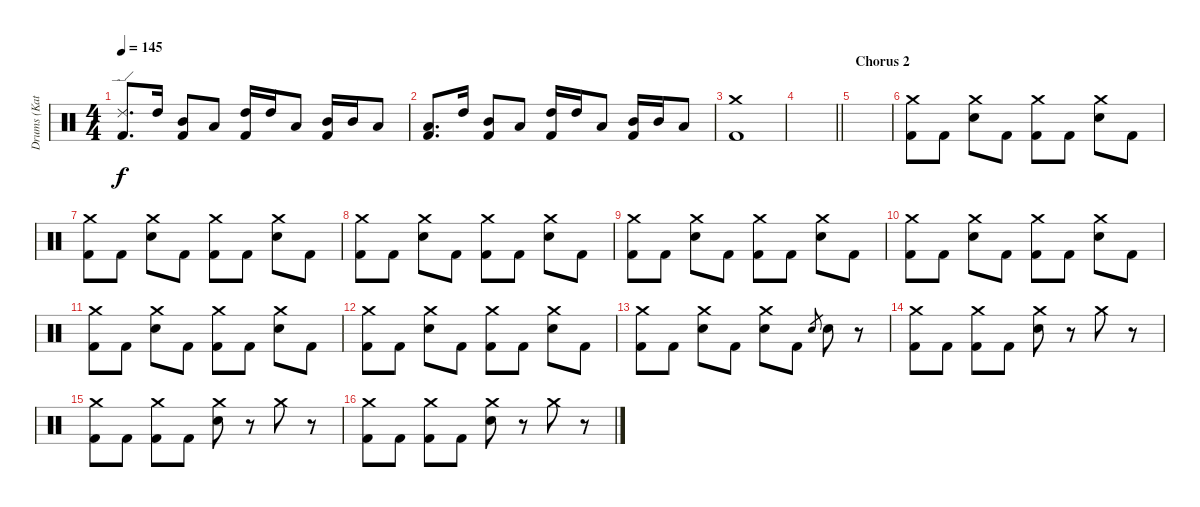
\track ("Drums (Katsuma)" "Drums (Kat") {instrument percussion}
\staff {score}
\articulation defaults
\ts (4 4)
\tempo 145
\clef neutral
\ks c
("Ride (edge) 2" "Kick (hit) 2").8{d dy f} "High Tom (hit)".16 ("Mid Tom (hit)" "Kick (hit) 2").8 "Low Tom (hit)".8 ("High Tom (hit)" "Kick (hit) 2").16 "High Tom (hit)".16 "Low Tom (hit)".8 ("Mid Tom (hit)" "Kick (hit) 2").16 "Mid Tom (hit)".16 "Low Tom (hit)".8 |
("Low Tom (hit)" "Kick (hit) 2").8{d} "High Tom (hit)".16 ("Mid Tom (hit)" "Kick (hit) 2").8 "Low Tom (hit)".8 ("High Tom (hit)" "Kick (hit) 2").16 "High Tom (hit)".16 "Low Tom (hit)".8 ("Mid Tom (hit)" "Kick (hit) 2").16 "Mid Tom (hit)".16 "Low Tom (hit)".8 |
("Crash medium (hit)" "Kick (hit) 2").1 |
\barLineRight lightlight
|
\section ("" "Chorus 2")
|
("Crash medium (hit)" "Kick (hit) 2").8 "Kick (hit) 2".8 ("Crash medium (hit)" "Electric Snare (hit)").8 "Kick (hit) 2".8 ("Crash medium (hit)" "Kick (hit) 2").8 "Kick (hit) 2".8 ("Crash medium (hit)" "Electric Snare (hit)").8 "Kick (hit) 2".8 |
("Crash medium (hit)" "Kick (hit) 2").8 "Kick (hit) 2".8 ("Crash medium (hit)" "Electric Snare (hit)").8 "Kick (hit) 2".8 ("Crash medium (hit)" "Kick (hit) 2").8 "Kick (hit) 2".8 ("Crash medium (hit)" "Electric Snare (hit)").8 "Kick (hit) 2".8 |
("Crash medium (hit)" "Kick (hit) 2").8 "Kick (hit) 2".8 ("Crash medium (hit)" "Electric Snare (hit)").8 "Kick (hit) 2".8 ("Crash medium (hit)" "Kick (hit) 2").8 "Kick (hit) 2".8 ("Crash medium (hit)" "Electric Snare (hit)").8 "Kick (hit) 2".8 |
("Crash medium (hit)" "Kick (hit) 2").8 "Kick (hit) 2".8 ("Crash medium (hit)" "Electric Snare (hit)").8 "Kick (hit) 2".8 ("Crash medium (hit)" "Kick (hit) 2").8 "Kick (hit) 2".8 ("Crash medium (hit)" "Electric Snare (hit)").8 "Kick (hit) 2".8 |
("Crash medium (hit)" "Kick (hit) 2").8 "Kick (hit) 2".8 ("Crash medium (hit)" "Electric Snare (hit)").8 "Kick (hit) 2".8 ("Crash medium (hit)" "Kick (hit) 2").8 "Kick (hit) 2".8 ("Crash medium (hit)" "Electric Snare (hit)").8 "Kick (hit) 2".8 |
("Crash medium (hit)" "Kick (hit) 2").8 "Kick (hit) 2".8 ("Crash medium (hit)" "Electric Snare (hit)").8 "Kick (hit) 2".8 ("Crash medium (hit)" "Kick (hit) 2").8 "Kick (hit) 2".8 ("Crash medium (hit)" "Electric Snare (hit)").8 "Kick (hit) 2".8 |
("Crash medium (hit)" "Kick (hit) 2").8 "Kick (hit) 2".8 ("Crash medium (hit)" "Electric Snare (hit)").8 "Kick (hit) 2".8 ("Crash medium (hit)" "Kick (hit) 2").8 "Kick (hit) 2".8 ("Crash medium (hit)" "Electric Snare (hit)").8 "Kick (hit) 2".8 |
("Crash medium (hit)" "Kick (hit) 2").8 "Kick (hit) 2".8 ("Crash medium (hit)" "Electric Snare (hit)").8 "Kick (hit) 2".8 ("Crash medium (hit)" "Electric Snare (hit)").8 "Kick (hit) 2".8 "Electric Snare (hit)".8{gr} "Electric Snare (hit)".8 r.8 |
("Crash medium (hit)" "Kick (hit) 2").8 "Kick (hit) 2".8 ("Crash medium (hit)" "Kick (hit) 2").8 "Kick (hit) 2".8 ("Crash medium (hit)" "Electric Snare (hit)").8 r.8 "Crash medium (hit)".8 r.8 |
("Crash medium (hit)" "Kick (hit) 2").8 "Kick (hit) 2".8 ("Crash medium (hit)" "Kick (hit) 2").8 "Kick (hit) 2".8 ("Crash medium (hit)" "Electric Snare (hit)").8 r.8 "Crash medium (hit)".8 r.8 |
("Crash medium (hit)" "Kick (hit) 2").8 "Kick (hit) 2".8 ("Crash medium (hit)" "Kick (hit) 2").8 "Kick (hit) 2".8 ("Crash medium (hit)" "Electric Snare (hit)").8 r.8 "Crash medium (hit)".8 r.8
